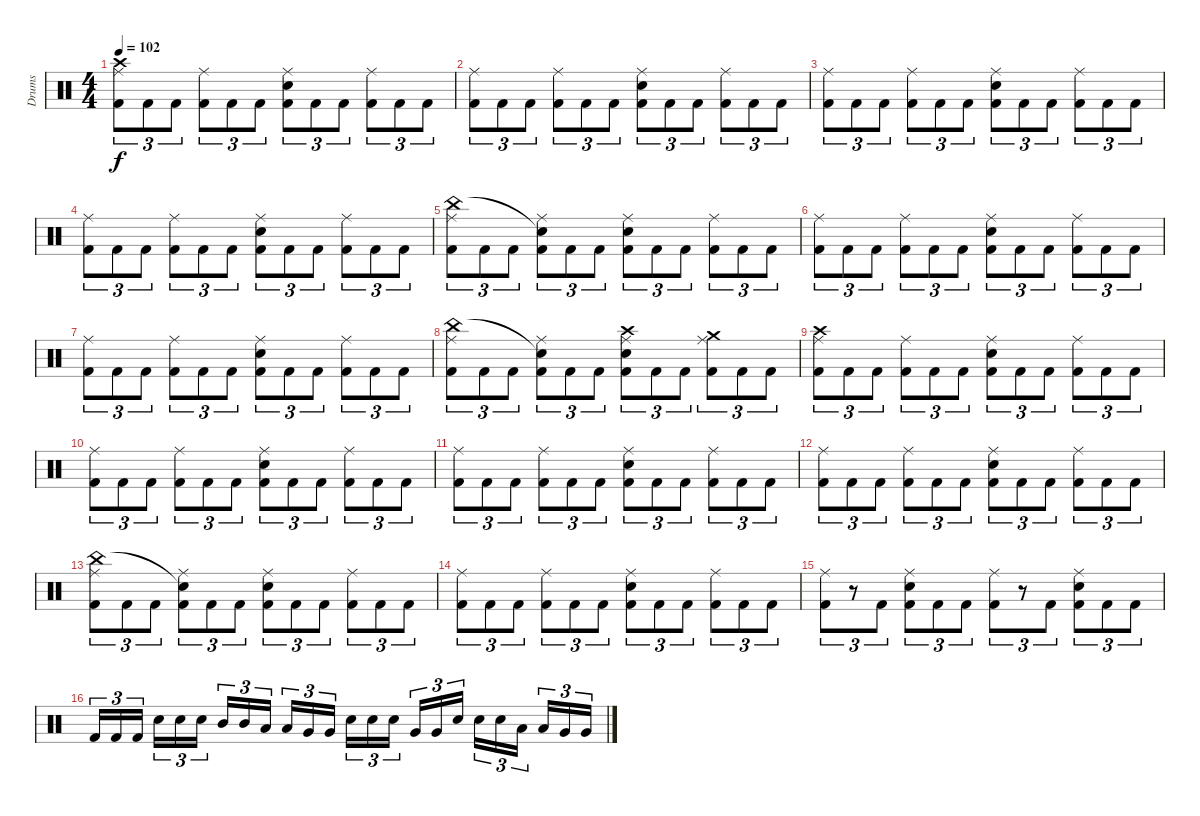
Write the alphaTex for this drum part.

\track ("Drums" "Drums") {instrument percussion}
\staff {score}
\articulation defaults
\ts (4 4)
\tempo 102
\clef neutral
\ks c
("Ride (middle)" "Crash high (hit)" "Kick (hit) 2").8{tu (3 2) dy f} "Kick (hit) 2".8{tu (3 2)} "Kick (hit) 2".8{tu (3 2)} ("Ride (middle)" "Kick (hit) 2").8{tu (3 2)} "Kick (hit) 2".8{tu (3 2)} "Kick (hit) 2".8{tu (3 2)} ("Ride (middle)" "Snare (hit) 2" "Kick (hit) 2").8{tu (3 2)} "Kick (hit) 2".8{tu (3 2)} "Kick (hit) 2".8{tu (3 2)} ("Ride (middle)" "Kick (hit) 2").8{tu (3 2)} "Kick (hit) 2".8{tu (3 2)} "Kick (hit) 2".8{tu (3 2)} |
("Ride (middle)" "Kick (hit) 2").8{tu (3 2)} "Kick (hit) 2".8{tu (3 2)} "Kick (hit) 2".8{tu (3 2)} ("Ride (middle)" "Kick (hit) 2").8{tu (3 2)} "Kick (hit) 2".8{tu (3 2)} "Kick (hit) 2".8{tu (3 2)} ("Ride (middle)" "Snare (hit) 2" "Kick (hit) 2").8{tu (3 2)} "Kick (hit) 2".8{tu (3 2)} "Kick (hit) 2".8{tu (3 2)} ("Ride (middle)" "Kick (hit) 2").8{tu (3 2)} "Kick (hit) 2".8{tu (3 2)} "Kick (hit) 2".8{tu (3 2)} |
("Ride (middle)" "Kick (hit) 2").8{tu (3 2)} "Kick (hit) 2".8{tu (3 2)} "Kick (hit) 2".8{tu (3 2)} ("Ride (middle)" "Kick (hit) 2").8{tu (3 2)} "Kick (hit) 2".8{tu (3 2)} "Kick (hit) 2".8{tu (3 2)} ("Ride (middle)" "Snare (hit) 2" "Kick (hit) 2").8{tu (3 2)} "Kick (hit) 2".8{tu (3 2)} "Kick (hit) 2".8{tu (3 2)} ("Ride (middle)" "Kick (hit) 2").8{tu (3 2)} "Kick (hit) 2".8{tu (3 2)} "Kick (hit) 2".8{tu (3 2)} |
("Ride (middle)" "Kick (hit) 2").8{tu (3 2)} "Kick (hit) 2".8{tu (3 2)} "Kick (hit) 2".8{tu (3 2)} ("Ride (middle)" "Kick (hit) 2").8{tu (3 2)} "Kick (hit) 2".8{tu (3 2)} "Kick (hit) 2".8{tu (3 2)} ("Ride (middle)" "Snare (hit) 2" "Kick (hit) 2").8{tu (3 2)} "Kick (hit) 2".8{tu (3 2)} "Kick (hit) 2".8{tu (3 2)} ("Ride (middle)" "Kick (hit) 2").8{tu (3 2)} "Kick (hit) 2".8{tu (3 2)} "Kick (hit) 2".8{tu (3 2)} |
("Ride (middle)" "China (hit)" "Kick (hit) 2").8{tu (3 2)} "Kick (hit) 2".8{tu (3 2)} "Kick (hit) 2".8{tu (3 2)} ("Ride (middle)" "Snare (hit)"{t} "Kick (hit) 2").8{tu (3 2)} "Kick (hit) 2".8{tu (3 2)} "Kick (hit) 2".8{tu (3 2)} ("Ride (middle)" "Snare (hit) 2" "Kick (hit) 2").8{tu (3 2)} "Kick (hit) 2".8{tu (3 2)} "Kick (hit) 2".8{tu (3 2)} ("Ride (middle)" "Kick (hit) 2").8{tu (3 2)} "Kick (hit) 2".8{tu (3 2)} "Kick (hit) 2".8{tu (3 2)} |
("Ride (middle)" "Kick (hit) 2").8{tu (3 2)} "Kick (hit) 2".8{tu (3 2)} "Kick (hit) 2".8{tu (3 2)} ("Ride (middle)" "Kick (hit) 2").8{tu (3 2)} "Kick (hit) 2".8{tu (3 2)} "Kick (hit) 2".8{tu (3 2)} ("Ride (middle)" "Snare (hit) 2" "Kick (hit) 2").8{tu (3 2)} "Kick (hit) 2".8{tu (3 2)} "Kick (hit) 2".8{tu (3 2)} ("Ride (middle)" "Kick (hit) 2").8{tu (3 2)} "Kick (hit) 2".8{tu (3 2)} "Kick (hit) 2".8{tu (3 2)} |
("Ride (middle)" "Kick (hit) 2").8{tu (3 2)} "Kick (hit) 2".8{tu (3 2)} "Kick (hit) 2".8{tu (3 2)} ("Ride (middle)" "Kick (hit) 2").8{tu (3 2)} "Kick (hit) 2".8{tu (3 2)} "Kick (hit) 2".8{tu (3 2)} ("Ride (middle)" "Snare (hit) 2" "Kick (hit) 2").8{tu (3 2)} "Kick (hit) 2".8{tu (3 2)} "Kick (hit) 2".8{tu (3 2)} ("Ride (middle)" "Kick (hit) 2").8{tu (3 2)} "Kick (hit) 2".8{tu (3 2)} "Kick (hit) 2".8{tu (3 2)} |
("Ride (middle)" "China (hit)" "Kick (hit) 2").8{tu (3 2)} "Kick (hit) 2".8{tu (3 2)} "Kick (hit) 2".8{tu (3 2)} ("Ride (middle)" "Snare (hit)"{t} "Kick (hit) 2").8{tu (3 2)} "Kick (hit) 2".8{tu (3 2)} "Kick (hit) 2".8{tu (3 2)} ("Ride (middle)" "Crash high (hit)" "Snare (hit) 2" "Kick (hit) 2").8{tu (3 2)} "Kick (hit) 2".8{tu (3 2)} "Kick (hit) 2".8{tu (3 2)} ("Ride (middle)" "Crash medium (hit)" "Kick (hit) 2").8{tu (3 2)} "Kick (hit) 2".8{tu (3 2)} "Kick (hit) 2".8{tu (3 2)} |
("Ride (middle)" "Crash high (hit)" "Kick (hit) 2").8{tu (3 2)} "Kick (hit) 2".8{tu (3 2)} "Kick (hit) 2".8{tu (3 2)} ("Ride (middle)" "Kick (hit) 2").8{tu (3 2)} "Kick (hit) 2".8{tu (3 2)} "Kick (hit) 2".8{tu (3 2)} ("Ride (middle)" "Snare (hit) 2" "Kick (hit) 2").8{tu (3 2)} "Kick (hit) 2".8{tu (3 2)} "Kick (hit) 2".8{tu (3 2)} ("Ride (middle)" "Kick (hit) 2").8{tu (3 2)} "Kick (hit) 2".8{tu (3 2)} "Kick (hit) 2".8{tu (3 2)} |
("Ride (middle)" "Kick (hit) 2").8{tu (3 2)} "Kick (hit) 2".8{tu (3 2)} "Kick (hit) 2".8{tu (3 2)} ("Ride (middle)" "Kick (hit) 2").8{tu (3 2)} "Kick (hit) 2".8{tu (3 2)} "Kick (hit) 2".8{tu (3 2)} ("Ride (middle)" "Snare (hit) 2" "Kick (hit) 2").8{tu (3 2)} "Kick (hit) 2".8{tu (3 2)} "Kick (hit) 2".8{tu (3 2)} ("Ride (middle)" "Kick (hit) 2").8{tu (3 2)} "Kick (hit) 2".8{tu (3 2)} "Kick (hit) 2".8{tu (3 2)} |
("Ride (middle)" "Kick (hit) 2").8{tu (3 2)} "Kick (hit) 2".8{tu (3 2)} "Kick (hit) 2".8{tu (3 2)} ("Ride (middle)" "Kick (hit) 2").8{tu (3 2)} "Kick (hit) 2".8{tu (3 2)} "Kick (hit) 2".8{tu (3 2)} ("Ride (middle)" "Snare (hit) 2" "Kick (hit) 2").8{tu (3 2)} "Kick (hit) 2".8{tu (3 2)} "Kick (hit) 2".8{tu (3 2)} ("Ride (middle)" "Kick (hit) 2").8{tu (3 2)} "Kick (hit) 2".8{tu (3 2)} "Kick (hit) 2".8{tu (3 2)} |
("Ride (middle)" "Kick (hit) 2").8{tu (3 2)} "Kick (hit) 2".8{tu (3 2)} "Kick (hit) 2".8{tu (3 2)} ("Ride (middle)" "Kick (hit) 2").8{tu (3 2)} "Kick (hit) 2".8{tu (3 2)} "Kick (hit) 2".8{tu (3 2)} ("Ride (middle)" "Snare (hit) 2" "Kick (hit) 2").8{tu (3 2)} "Kick (hit) 2".8{tu (3 2)} "Kick (hit) 2".8{tu (3 2)} ("Ride (middle)" "Kick (hit) 2").8{tu (3 2)} "Kick (hit) 2".8{tu (3 2)} "Kick (hit) 2".8{tu (3 2)} |
("Ride (middle)" "China (hit)" "Kick (hit) 2").8{tu (3 2)} "Kick (hit) 2".8{tu (3 2)} "Kick (hit) 2".8{tu (3 2)} ("Ride (middle)" "Snare (hit)"{t} "Kick (hit) 2").8{tu (3 2)} "Kick (hit) 2".8{tu (3 2)} "Kick (hit) 2".8{tu (3 2)} ("Ride (middle)" "Snare (hit) 2" "Kick (hit) 2").8{tu (3 2)} "Kick (hit) 2".8{tu (3 2)} "Kick (hit) 2".8{tu (3 2)} ("Ride (middle)" "Kick (hit) 2").8{tu (3 2)} "Kick (hit) 2".8{tu (3 2)} "Kick (hit) 2".8{tu (3 2)} |
("Ride (middle)" "Kick (hit) 2").8{tu (3 2)} "Kick (hit) 2".8{tu (3 2)} "Kick (hit) 2".8{tu (3 2)} ("Ride (middle)" "Kick (hit) 2").8{tu (3 2)} "Kick (hit) 2".8{tu (3 2)} "Kick (hit) 2".8{tu (3 2)} ("Ride (middle)" "Snare (hit) 2" "Kick (hit) 2").8{tu (3 2)} "Kick (hit) 2".8{tu (3 2)} "Kick (hit) 2".8{tu (3 2)} ("Ride (middle)" "Kick (hit) 2").8{tu (3 2)} "Kick (hit) 2".8{tu (3 2)} "Kick (hit) 2".8{tu (3 2)} |
("Ride (middle)" "Kick (hit) 2").8{tu (3 2)} r.8{tu (3 2)} "Kick (hit) 2".8{tu (3 2)} ("Ride (middle)" "Snare (hit) 2" "Kick (hit) 2").8{tu (3 2)} "Kick (hit) 2".8{tu (3 2)} "Kick (hit) 2".8{tu (3 2)} ("Ride (middle)" "Kick (hit) 2").8{tu (3 2)} r.8{tu (3 2)} "Kick (hit) 2".8{tu (3 2)} ("Ride (middle)" "Snare (hit) 2" "Kick (hit) 2").8{tu (3 2)} "Kick (hit) 2".8{tu (3 2)} "Kick (hit) 2".8{tu (3 2)} |
"Kick (hit) 2".16{tu (3 2)} "Kick (hit) 2".16{tu (3 2)} "Kick (hit) 2".16{tu (3 2)} "Snare (hit) 2".16{tu (3 2)} "Snare (hit) 2".16{tu (3 2)} "Snare (hit) 2".16{tu (3 2)} "Mid Tom (hit)".16{tu (3 2)} "Mid Tom (hit)".16{tu (3 2)} "Low Tom (hit)".16{tu (3 2)} "Low Tom (hit)".16{tu (3 2)} "Very Low Tom (hit)".16{tu (3 2)} "Very Low Tom (hit)".16{tu (3 2)} "Snare (hit) 2".16{tu (3 2)} "Snare (hit) 2".16{tu (3 2)} "Snare (hit) 2".16{tu (3 2)} "Very Low Tom (hit)".16{tu (3 2)} "Very Low Tom (hit)".16{tu (3 2)} "Snare (hit) 2".16{tu (3 2)} "Snare (hit) 2".16{tu (3 2)} "Snare (hit) 2".16{tu (3 2)} "Low Tom (hit)".16{tu (3 2)} "Low Tom (hit)".16{tu (3 2)} "Very Low Tom (hit)".16{tu (3 2)} "Very Low Tom (hit)".16{tu (3 2)}
